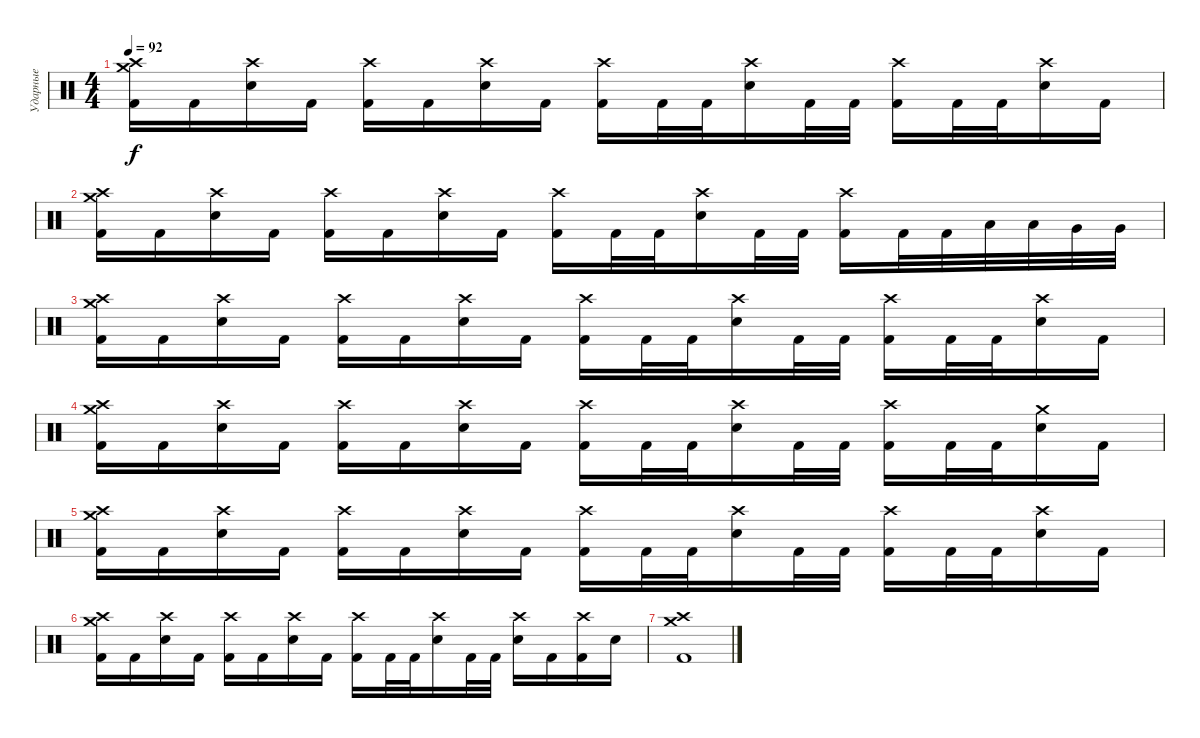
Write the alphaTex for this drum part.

\track ("Ударные" "Ударные") {instrument percussion}
\staff {score}
\articulation defaults
\ts (4 4)
\tempo 92
\clef neutral
\ks c
("Crash medium (hit)" "Crash high (hit)" "Kick (hit) 2").16{dy f} "Kick (hit) 2".16 ("Crash high (hit)" "Electric Snare (hit)").16 "Kick (hit) 2".16 ("Crash high (hit)" "Kick (hit) 2").16 "Kick (hit) 2".16 ("Crash high (hit)" "Electric Snare (hit)").16 "Kick (hit) 2".16 ("Crash high (hit)" "Kick (hit) 2").16 "Kick (hit) 2".32 "Kick (hit) 2".32 ("Crash high (hit)" "Electric Snare (hit)").16 "Kick (hit) 2".32 "Kick (hit) 2".32 ("Crash high (hit)" "Kick (hit) 2").16 "Kick (hit) 2".32 "Kick (hit) 2".32 ("Crash high (hit)" "Electric Snare (hit)").16 "Kick (hit) 2".16 |
("Crash medium (hit)" "Crash high (hit)" "Kick (hit) 2").16 "Kick (hit) 2".16 ("Crash high (hit)" "Electric Snare (hit)").16 "Kick (hit) 2".16 ("Crash high (hit)" "Kick (hit) 2").16 "Kick (hit) 2".16 ("Crash high (hit)" "Electric Snare (hit)").16 "Kick (hit) 2".16 ("Crash high (hit)" "Kick (hit) 2").16 "Kick (hit) 2".32 "Kick (hit) 2".32 ("Crash high (hit)" "Electric Snare (hit)").16 "Kick (hit) 2".32 "Kick (hit) 2".32 ("Crash high (hit)" "Kick (hit) 2").16 "Kick (hit) 2".32 "Kick (hit) 2".32 "Low Tom (hit)".32 "Low Tom (hit)".32 "Very Low Tom (hit)".32 "Very Low Tom (hit)".32 |
("Crash medium (hit)" "Crash high (hit)" "Kick (hit) 2").16 "Kick (hit) 2".16 ("Crash high (hit)" "Electric Snare (hit)").16 "Kick (hit) 2".16 ("Crash high (hit)" "Kick (hit) 2").16 "Kick (hit) 2".16 ("Crash high (hit)" "Electric Snare (hit)").16 "Kick (hit) 2".16 ("Crash high (hit)" "Kick (hit) 2").16 "Kick (hit) 2".32 "Kick (hit) 2".32 ("Crash high (hit)" "Electric Snare (hit)").16 "Kick (hit) 2".32 "Kick (hit) 2".32 ("Crash high (hit)" "Kick (hit) 2").16 "Kick (hit) 2".32 "Kick (hit) 2".32 ("Crash high (hit)" "Electric Snare (hit)").16 "Kick (hit) 2".16 |
("Crash medium (hit)" "Crash high (hit)" "Kick (hit) 2").16 "Kick (hit) 2".16 ("Crash high (hit)" "Electric Snare (hit)").16 "Kick (hit) 2".16 ("Crash high (hit)" "Kick (hit) 2").16 "Kick (hit) 2".16 ("Crash high (hit)" "Electric Snare (hit)").16 "Kick (hit) 2".16 ("Crash high (hit)" "Kick (hit) 2").16 "Kick (hit) 2".32 "Kick (hit) 2".32 ("Crash high (hit)" "Electric Snare (hit)").16 "Kick (hit) 2".32 "Kick (hit) 2".32 ("Crash high (hit)" "Kick (hit) 2").16 "Kick (hit) 2".32 "Kick (hit) 2".32 ("Crash medium (hit)" "Electric Snare (hit)").16 "Kick (hit) 2".16 |
("Crash medium (hit)" "Crash high (hit)" "Kick (hit) 2").16 "Kick (hit) 2".16 ("Crash high (hit)" "Electric Snare (hit)").16 "Kick (hit) 2".16 ("Crash high (hit)" "Kick (hit) 2").16 "Kick (hit) 2".16 ("Crash high (hit)" "Electric Snare (hit)").16 "Kick (hit) 2".16 ("Crash high (hit)" "Kick (hit) 2").16 "Kick (hit) 2".32 "Kick (hit) 2".32 ("Crash high (hit)" "Electric Snare (hit)").16 "Kick (hit) 2".32 "Kick (hit) 2".32 ("Crash high (hit)" "Kick (hit) 2").16 "Kick (hit) 2".32 "Kick (hit) 2".32 ("Crash high (hit)" "Electric Snare (hit)").16 "Kick (hit) 2".16 |
("Crash medium (hit)" "Crash high (hit)" "Kick (hit) 2").16 "Kick (hit) 2".16 ("Crash high (hit)" "Electric Snare (hit)").16 "Kick (hit) 2".16 ("Crash high (hit)" "Kick (hit) 2").16 "Kick (hit) 2".16 ("Crash high (hit)" "Electric Snare (hit)").16 "Kick (hit) 2".16 ("Crash high (hit)" "Kick (hit) 2").16 "Kick (hit) 2".32 "Kick (hit) 2".32 ("Crash high (hit)" "Electric Snare (hit)").16 "Kick (hit) 2".32 "Kick (hit) 2".32 ("Crash high (hit)" "Electric Snare (hit)").16 "Kick (hit) 2".16 ("Crash high (hit)" "Kick (hit) 2").16 "Electric Snare (hit)".16 |
("Crash medium (hit)" "Crash high (hit)" "Kick (hit) 2").1
